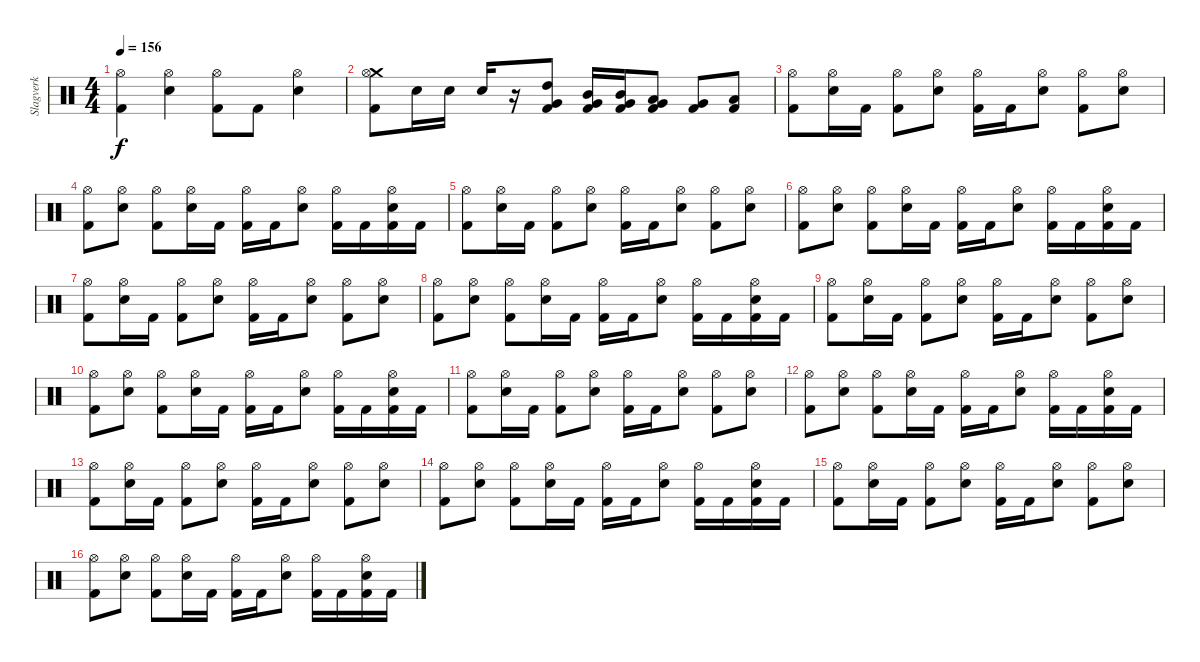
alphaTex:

\track ("Slagverk" "Slagverk") {instrument percussion}
\staff {score}
\articulation defaults
\ts (4 4)
\tempo 156
\clef neutral
\ks c
("Hi-Hat (open)" "Kick (hit) 2").4{dy f} ("Hi-Hat (open)" "Snare (hit) 2").4 ("Hi-Hat (open)" "Kick (hit) 2").8 "Kick (hit) 2".8 ("Hi-Hat (open)" "Snare (hit) 2").4 |
("Crash medium (hit)" "Hi-Hat (open)" "Kick (hit) 2").8 "Snare (hit) 2".16 "Snare (hit) 2".16 "Snare (hit) 2".16 r.16 ("Very Low Tom (hit)" "High Tom (hit)" "Kick (hit) 2").8 ("Very Low Tom (hit)" "Mid Tom (hit)" "Kick (hit) 2").16 ("Very Low Tom (hit)" "Mid Tom (hit)" "Kick (hit) 2").16 ("Very Low Tom (hit)" "Low Tom (hit)" "Kick (hit) 2").8 ("Very Low Tom (hit)" "Kick (hit) 2").8 ("Low Floor Tom (hit)" "Kick (hit) 2").8 |
("Kick (hit) 2" "Hi-Hat (open)").8 ("Snare (hit) 2" "Hi-Hat (open)").16 "Kick (hit) 2".16 ("Kick (hit) 2" "Hi-Hat (open)").8 ("Snare (hit) 2" "Hi-Hat (open)").8 ("Kick (hit) 2" "Hi-Hat (open)").16 "Kick (hit) 2".16 ("Snare (hit) 2" "Hi-Hat (open)").8 ("Kick (hit) 2" "Hi-Hat (open)").8 ("Snare (hit) 2" "Hi-Hat (open)").8 |
("Kick (hit) 2" "Hi-Hat (open)").8 ("Snare (hit) 2" "Hi-Hat (open)").8 ("Kick (hit) 2" "Hi-Hat (open)").8 ("Snare (hit) 2" "Hi-Hat (open)").16 "Kick (hit) 2".16 ("Kick (hit) 2" "Hi-Hat (open)").16 "Kick (hit) 2".16 ("Snare (hit) 2" "Hi-Hat (open)").8 ("Kick (hit) 2" "Hi-Hat (open)").16 "Kick (hit) 2".16 ("Kick (hit) 2" "Snare (hit) 2" "Hi-Hat (open)").16 "Kick (hit) 2".16 |
("Kick (hit) 2" "Hi-Hat (open)").8 ("Snare (hit) 2" "Hi-Hat (open)").16 "Kick (hit) 2".16 ("Kick (hit) 2" "Hi-Hat (open)").8 ("Snare (hit) 2" "Hi-Hat (open)").8 ("Kick (hit) 2" "Hi-Hat (open)").16 "Kick (hit) 2".16 ("Snare (hit) 2" "Hi-Hat (open)").8 ("Kick (hit) 2" "Hi-Hat (open)").8 ("Snare (hit) 2" "Hi-Hat (open)").8 |
("Kick (hit) 2" "Hi-Hat (open)").8 ("Snare (hit) 2" "Hi-Hat (open)").8 ("Kick (hit) 2" "Hi-Hat (open)").8 ("Snare (hit) 2" "Hi-Hat (open)").16 "Kick (hit) 2".16 ("Kick (hit) 2" "Hi-Hat (open)").16 "Kick (hit) 2".16 ("Snare (hit) 2" "Hi-Hat (open)").8 ("Kick (hit) 2" "Hi-Hat (open)").16 "Kick (hit) 2".16 ("Kick (hit) 2" "Snare (hit) 2" "Hi-Hat (open)").16 "Kick (hit) 2".16 |
("Kick (hit) 2" "Hi-Hat (open)").8 ("Snare (hit) 2" "Hi-Hat (open)").16 "Kick (hit) 2".16 ("Kick (hit) 2" "Hi-Hat (open)").8 ("Snare (hit) 2" "Hi-Hat (open)").8 ("Kick (hit) 2" "Hi-Hat (open)").16 "Kick (hit) 2".16 ("Snare (hit) 2" "Hi-Hat (open)").8 ("Kick (hit) 2" "Hi-Hat (open)").8 ("Snare (hit) 2" "Hi-Hat (open)").8 |
("Kick (hit) 2" "Hi-Hat (open)").8 ("Snare (hit) 2" "Hi-Hat (open)").8 ("Kick (hit) 2" "Hi-Hat (open)").8 ("Snare (hit) 2" "Hi-Hat (open)").16 "Kick (hit) 2".16 ("Kick (hit) 2" "Hi-Hat (open)").16 "Kick (hit) 2".16 ("Snare (hit) 2" "Hi-Hat (open)").8 ("Kick (hit) 2" "Hi-Hat (open)").16 "Kick (hit) 2".16 ("Kick (hit) 2" "Snare (hit) 2" "Hi-Hat (open)").16 "Kick (hit) 2".16 |
("Kick (hit) 2" "Hi-Hat (open)").8 ("Snare (hit) 2" "Hi-Hat (open)").16 "Kick (hit) 2".16 ("Kick (hit) 2" "Hi-Hat (open)").8 ("Snare (hit) 2" "Hi-Hat (open)").8 ("Kick (hit) 2" "Hi-Hat (open)").16 "Kick (hit) 2".16 ("Snare (hit) 2" "Hi-Hat (open)").8 ("Kick (hit) 2" "Hi-Hat (open)").8 ("Snare (hit) 2" "Hi-Hat (open)").8 |
("Kick (hit) 2" "Hi-Hat (open)").8 ("Snare (hit) 2" "Hi-Hat (open)").8 ("Kick (hit) 2" "Hi-Hat (open)").8 ("Snare (hit) 2" "Hi-Hat (open)").16 "Kick (hit) 2".16 ("Kick (hit) 2" "Hi-Hat (open)").16 "Kick (hit) 2".16 ("Snare (hit) 2" "Hi-Hat (open)").8 ("Kick (hit) 2" "Hi-Hat (open)").16 "Kick (hit) 2".16 ("Kick (hit) 2" "Snare (hit) 2" "Hi-Hat (open)").16 "Kick (hit) 2".16 |
("Kick (hit) 2" "Hi-Hat (open)").8 ("Snare (hit) 2" "Hi-Hat (open)").16 "Kick (hit) 2".16 ("Kick (hit) 2" "Hi-Hat (open)").8 ("Snare (hit) 2" "Hi-Hat (open)").8 ("Kick (hit) 2" "Hi-Hat (open)").16 "Kick (hit) 2".16 ("Snare (hit) 2" "Hi-Hat (open)").8 ("Kick (hit) 2" "Hi-Hat (open)").8 ("Snare (hit) 2" "Hi-Hat (open)").8 |
("Kick (hit) 2" "Hi-Hat (open)").8 ("Snare (hit) 2" "Hi-Hat (open)").8 ("Kick (hit) 2" "Hi-Hat (open)").8 ("Snare (hit) 2" "Hi-Hat (open)").16 "Kick (hit) 2".16 ("Kick (hit) 2" "Hi-Hat (open)").16 "Kick (hit) 2".16 ("Snare (hit) 2" "Hi-Hat (open)").8 ("Kick (hit) 2" "Hi-Hat (open)").16 "Kick (hit) 2".16 ("Kick (hit) 2" "Snare (hit) 2" "Hi-Hat (open)").16 "Kick (hit) 2".16 |
("Kick (hit) 2" "Hi-Hat (open)").8 ("Snare (hit) 2" "Hi-Hat (open)").16 "Kick (hit) 2".16 ("Kick (hit) 2" "Hi-Hat (open)").8 ("Snare (hit) 2" "Hi-Hat (open)").8 ("Kick (hit) 2" "Hi-Hat (open)").16 "Kick (hit) 2".16 ("Snare (hit) 2" "Hi-Hat (open)").8 ("Kick (hit) 2" "Hi-Hat (open)").8 ("Snare (hit) 2" "Hi-Hat (open)").8 |
("Kick (hit) 2" "Hi-Hat (open)").8 ("Snare (hit) 2" "Hi-Hat (open)").8 ("Kick (hit) 2" "Hi-Hat (open)").8 ("Snare (hit) 2" "Hi-Hat (open)").16 "Kick (hit) 2".16 ("Kick (hit) 2" "Hi-Hat (open)").16 "Kick (hit) 2".16 ("Snare (hit) 2" "Hi-Hat (open)").8 ("Kick (hit) 2" "Hi-Hat (open)").16 "Kick (hit) 2".16 ("Kick (hit) 2" "Snare (hit) 2" "Hi-Hat (open)").16 "Kick (hit) 2".16 |
("Kick (hit) 2" "Hi-Hat (open)").8 ("Snare (hit) 2" "Hi-Hat (open)").16 "Kick (hit) 2".16 ("Kick (hit) 2" "Hi-Hat (open)").8 ("Snare (hit) 2" "Hi-Hat (open)").8 ("Kick (hit) 2" "Hi-Hat (open)").16 "Kick (hit) 2".16 ("Snare (hit) 2" "Hi-Hat (open)").8 ("Kick (hit) 2" "Hi-Hat (open)").8 ("Snare (hit) 2" "Hi-Hat (open)").8 |
("Kick (hit) 2" "Hi-Hat (open)").8 ("Snare (hit) 2" "Hi-Hat (open)").8 ("Kick (hit) 2" "Hi-Hat (open)").8 ("Snare (hit) 2" "Hi-Hat (open)").16 "Kick (hit) 2".16 ("Kick (hit) 2" "Hi-Hat (open)").16 "Kick (hit) 2".16 ("Snare (hit) 2" "Hi-Hat (open)").8 ("Kick (hit) 2" "Hi-Hat (open)").16 "Kick (hit) 2".16 ("Kick (hit) 2" "Snare (hit) 2" "Hi-Hat (open)").16 "Kick (hit) 2".16
